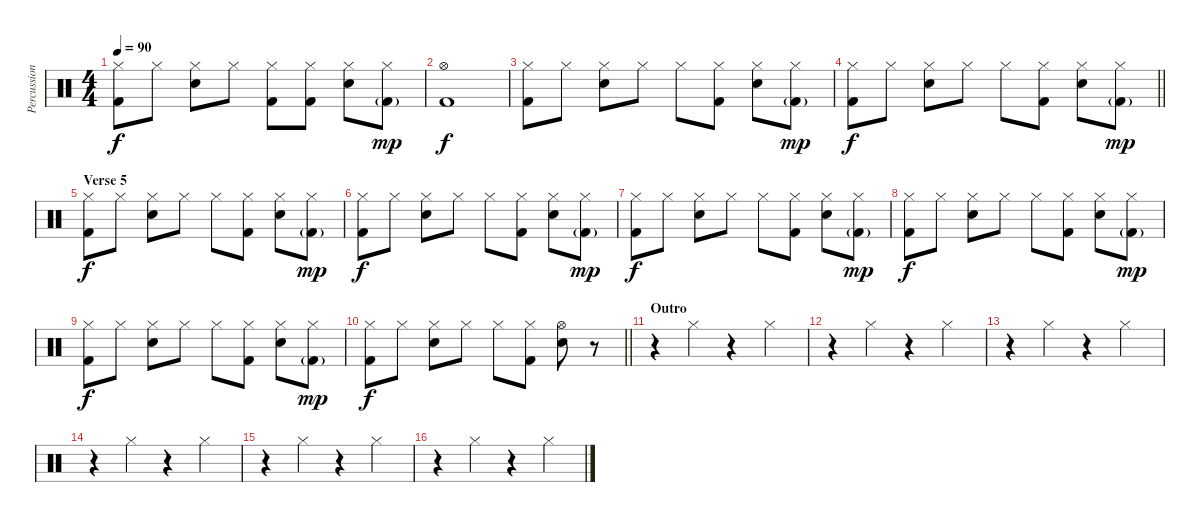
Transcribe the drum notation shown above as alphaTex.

\track ("Percussion" "Percussion") {instrument percussion}
\staff {score}
\articulation defaults
\ts (4 4)
\tempo 90
\clef neutral
\ks c
("Hi-Hat (closed)" "Kick (hit) 2").8{dy f} "Hi-Hat (closed)".8 ("Hi-Hat (closed)" "Snare (hit) 2").8 "Hi-Hat (closed)".8 ("Hi-Hat (closed)" "Kick (hit) 2").8 ("Hi-Hat (closed)" "Kick (hit) 2").8 ("Hi-Hat (closed)" "Snare (hit) 2").8 ("Hi-Hat (closed)" "Kick (hit) 2"{g}).8{dy mp} |
("Hi-Hat (open)" "Kick (hit) 2").1{dy f} |
("Hi-Hat (closed)" "Kick (hit) 2").8 "Hi-Hat (closed)".8 ("Hi-Hat (closed)" "Snare (hit) 2").8 "Hi-Hat (closed)".8 "Hi-Hat (closed)".8 ("Hi-Hat (closed)" "Kick (hit) 2").8 ("Hi-Hat (closed)" "Snare (hit) 2").8 ("Hi-Hat (closed)" "Kick (hit) 2"{g}).8{dy mp} |
\barLineRight lightlight
("Hi-Hat (closed)" "Kick (hit) 2").8{dy f} "Hi-Hat (closed)".8 ("Hi-Hat (closed)" "Snare (hit) 2").8 "Hi-Hat (closed)".8 "Hi-Hat (closed)".8 ("Hi-Hat (closed)" "Kick (hit) 2").8 ("Hi-Hat (closed)" "Snare (hit) 2").8 ("Hi-Hat (closed)" "Kick (hit) 2"{g}).8{dy mp} |
\section ("" "Verse 5")
("Hi-Hat (closed)" "Kick (hit) 2").8{dy f} "Hi-Hat (closed)".8 ("Hi-Hat (closed)" "Snare (hit) 2").8 "Hi-Hat (closed)".8 "Hi-Hat (closed)".8 ("Hi-Hat (closed)" "Kick (hit) 2").8 ("Hi-Hat (closed)" "Snare (hit) 2").8 ("Hi-Hat (closed)" "Kick (hit) 2"{g}).8{dy mp} |
("Hi-Hat (closed)" "Kick (hit) 2").8{dy f} "Hi-Hat (closed)".8 ("Hi-Hat (closed)" "Snare (hit) 2").8 "Hi-Hat (closed)".8 "Hi-Hat (closed)".8 ("Hi-Hat (closed)" "Kick (hit) 2").8 ("Hi-Hat (closed)" "Snare (hit) 2").8 ("Hi-Hat (closed)" "Kick (hit) 2"{g}).8{dy mp} |
("Hi-Hat (closed)" "Kick (hit) 2").8{dy f} "Hi-Hat (closed)".8 ("Hi-Hat (closed)" "Snare (hit) 2").8 "Hi-Hat (closed)".8 "Hi-Hat (closed)".8 ("Hi-Hat (closed)" "Kick (hit) 2").8 ("Hi-Hat (closed)" "Snare (hit) 2").8 ("Hi-Hat (closed)" "Kick (hit) 2"{g}).8{dy mp} |
("Hi-Hat (closed)" "Kick (hit) 2").8{dy f} "Hi-Hat (closed)".8 ("Hi-Hat (closed)" "Snare (hit) 2").8 "Hi-Hat (closed)".8 "Hi-Hat (closed)".8 ("Hi-Hat (closed)" "Kick (hit) 2").8 ("Hi-Hat (closed)" "Snare (hit) 2").8 ("Hi-Hat (closed)" "Kick (hit) 2"{g}).8{dy mp} |
("Hi-Hat (closed)" "Kick (hit) 2").8{dy f} "Hi-Hat (closed)".8 ("Hi-Hat (closed)" "Snare (hit) 2").8 "Hi-Hat (closed)".8 "Hi-Hat (closed)".8 ("Hi-Hat (closed)" "Kick (hit) 2").8 ("Hi-Hat (closed)" "Snare (hit) 2").8 ("Hi-Hat (closed)" "Kick (hit) 2"{g}).8{dy mp} |
\barLineRight lightlight
("Hi-Hat (closed)" "Kick (hit) 2").8{dy f} "Hi-Hat (closed)".8 ("Hi-Hat (closed)" "Snare (hit) 2").8 "Hi-Hat (closed)".8 "Hi-Hat (closed)".8 ("Hi-Hat (closed)" "Kick (hit) 2").8 ("Hi-Hat (open)" "Snare (hit) 2").8 r.8 |
\section ("" "Outro")
r.4 "Hi-Hat (closed)".4 r.4 "Hi-Hat (closed)".4 |
r.4 "Hi-Hat (closed)".4 r.4 "Hi-Hat (closed)".4 |
r.4 "Hi-Hat (closed)".4 r.4 "Hi-Hat (closed)".4 |
r.4 "Hi-Hat (closed)".4 r.4 "Hi-Hat (closed)".4 |
r.4 "Hi-Hat (closed)".4 r.4 "Hi-Hat (closed)".4 |
r.4 "Hi-Hat (closed)".4 r.4 "Hi-Hat (closed)".4
